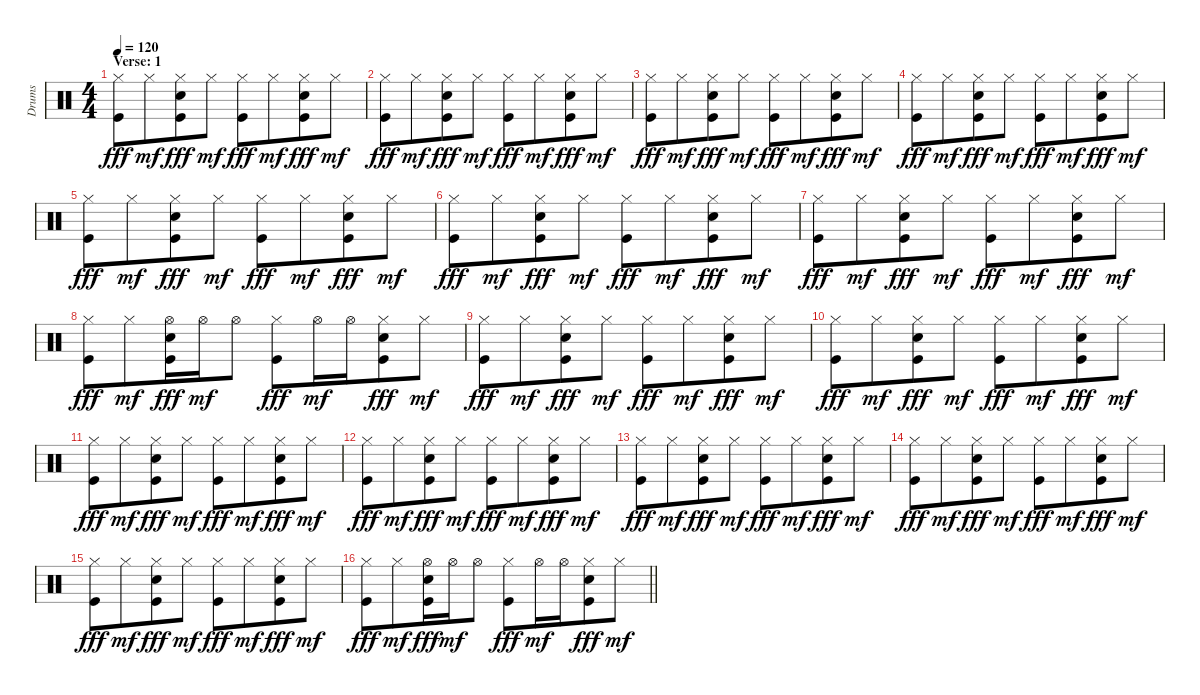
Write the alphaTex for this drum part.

\track ("Drums" "Drums") {instrument percussion}
\staff {score}
\articulation defaults
\ts (4 4)
\section ("" "Verse: 1")
\tempo 120
\clef neutral
\ks c
("Hi-Hat (closed)" "Kick (hit)").8{dy fff} "Hi-Hat (closed)".8{dy mf beam merge} ("Hi-Hat (closed)" "Snare (hit) 2" "Kick (hit)").8{dy fff} "Hi-Hat (closed)".8{dy mf} ("Hi-Hat (closed)" "Kick (hit)").8{dy fff} "Hi-Hat (closed)".8{dy mf beam merge} ("Hi-Hat (closed)" "Snare (hit) 2" "Kick (hit)").8{dy fff} "Hi-Hat (closed)".8{dy mf} |
("Hi-Hat (closed)" "Kick (hit)").8{dy fff} "Hi-Hat (closed)".8{dy mf beam merge} ("Hi-Hat (closed)" "Snare (hit) 2" "Kick (hit)").8{dy fff} "Hi-Hat (closed)".8{dy mf} ("Hi-Hat (closed)" "Kick (hit)").8{dy fff} "Hi-Hat (closed)".8{dy mf beam merge} ("Hi-Hat (closed)" "Snare (hit) 2" "Kick (hit)").8{dy fff} "Hi-Hat (closed)".8{dy mf} |
("Hi-Hat (closed)" "Kick (hit)").8{dy fff} "Hi-Hat (closed)".8{dy mf beam merge} ("Hi-Hat (closed)" "Snare (hit) 2" "Kick (hit)").8{dy fff} "Hi-Hat (closed)".8{dy mf} ("Hi-Hat (closed)" "Kick (hit)").8{dy fff} "Hi-Hat (closed)".8{dy mf beam merge} ("Hi-Hat (closed)" "Snare (hit) 2" "Kick (hit)").8{dy fff} "Hi-Hat (closed)".8{dy mf} |
("Hi-Hat (closed)" "Kick (hit)").8{dy fff} "Hi-Hat (closed)".8{dy mf beam merge} ("Hi-Hat (closed)" "Snare (hit) 2" "Kick (hit)").8{dy fff} "Hi-Hat (closed)".8{dy mf} ("Hi-Hat (closed)" "Kick (hit)").8{dy fff} "Hi-Hat (closed)".8{dy mf beam merge} ("Hi-Hat (closed)" "Snare (hit) 2" "Kick (hit)").8{dy fff} "Hi-Hat (closed)".8{dy mf} |
("Hi-Hat (closed)" "Kick (hit)").8{dy fff} "Hi-Hat (closed)".8{dy mf beam merge} ("Hi-Hat (closed)" "Snare (hit) 2" "Kick (hit)").8{dy fff} "Hi-Hat (closed)".8{dy mf} ("Hi-Hat (closed)" "Kick (hit)").8{dy fff} "Hi-Hat (closed)".8{dy mf beam merge} ("Hi-Hat (closed)" "Snare (hit) 2" "Kick (hit)").8{dy fff} "Hi-Hat (closed)".8{dy mf} |
("Hi-Hat (closed)" "Kick (hit)").8{dy fff} "Hi-Hat (closed)".8{dy mf beam merge} ("Hi-Hat (closed)" "Snare (hit) 2" "Kick (hit)").8{dy fff} "Hi-Hat (closed)".8{dy mf} ("Hi-Hat (closed)" "Kick (hit)").8{dy fff} "Hi-Hat (closed)".8{dy mf beam merge} ("Hi-Hat (closed)" "Snare (hit) 2" "Kick (hit)").8{dy fff} "Hi-Hat (closed)".8{dy mf} |
("Hi-Hat (closed)" "Kick (hit)").8{dy fff} "Hi-Hat (closed)".8{dy mf beam merge} ("Hi-Hat (closed)" "Snare (hit) 2" "Kick (hit)").8{dy fff} "Hi-Hat (closed)".8{dy mf} ("Hi-Hat (closed)" "Kick (hit)").8{dy fff} "Hi-Hat (closed)".8{dy mf beam merge} ("Hi-Hat (closed)" "Snare (hit) 2" "Kick (hit)").8{dy fff} "Hi-Hat (closed)".8{dy mf} |
("Hi-Hat (closed)" "Kick (hit)").8{dy fff} "Hi-Hat (closed)".8{dy mf beam merge} ("Hi-Hat (open)" "Snare (hit) 2" "Kick (hit)").16{dy fff} "Hi-Hat (open)".16{dy mf} "Hi-Hat (open)".8 ("Hi-Hat (closed)" "Kick (hit)").8{dy fff} "Hi-Hat (open)".16{dy mf} "Hi-Hat (open)".16{beam merge} ("Hi-Hat (closed)" "Snare (hit) 2" "Kick (hit)").8{dy fff} "Hi-Hat (closed)".8{dy mf} |
("Hi-Hat (closed)" "Kick (hit)").8{dy fff} "Hi-Hat (closed)".8{dy mf beam merge} ("Hi-Hat (closed)" "Snare (hit) 2" "Kick (hit)").8{dy fff} "Hi-Hat (closed)".8{dy mf} ("Hi-Hat (closed)" "Kick (hit)").8{dy fff} "Hi-Hat (closed)".8{dy mf beam merge} ("Hi-Hat (closed)" "Snare (hit) 2" "Kick (hit)").8{dy fff} "Hi-Hat (closed)".8{dy mf} |
("Hi-Hat (closed)" "Kick (hit)").8{dy fff} "Hi-Hat (closed)".8{dy mf beam merge} ("Hi-Hat (closed)" "Snare (hit) 2" "Kick (hit)").8{dy fff} "Hi-Hat (closed)".8{dy mf} ("Hi-Hat (closed)" "Kick (hit)").8{dy fff} "Hi-Hat (closed)".8{dy mf beam merge} ("Hi-Hat (closed)" "Snare (hit) 2" "Kick (hit)").8{dy fff} "Hi-Hat (closed)".8{dy mf} |
("Hi-Hat (closed)" "Kick (hit)").8{dy fff} "Hi-Hat (closed)".8{dy mf beam merge} ("Hi-Hat (closed)" "Snare (hit) 2" "Kick (hit)").8{dy fff} "Hi-Hat (closed)".8{dy mf} ("Hi-Hat (closed)" "Kick (hit)").8{dy fff} "Hi-Hat (closed)".8{dy mf beam merge} ("Hi-Hat (closed)" "Snare (hit) 2" "Kick (hit)").8{dy fff} "Hi-Hat (closed)".8{dy mf} |
("Hi-Hat (closed)" "Kick (hit)").8{dy fff} "Hi-Hat (closed)".8{dy mf beam merge} ("Hi-Hat (closed)" "Snare (hit) 2" "Kick (hit)").8{dy fff} "Hi-Hat (closed)".8{dy mf} ("Hi-Hat (closed)" "Kick (hit)").8{dy fff} "Hi-Hat (closed)".8{dy mf beam merge} ("Hi-Hat (closed)" "Snare (hit) 2" "Kick (hit)").8{dy fff} "Hi-Hat (closed)".8{dy mf} |
("Hi-Hat (closed)" "Kick (hit)").8{dy fff} "Hi-Hat (closed)".8{dy mf beam merge} ("Hi-Hat (closed)" "Snare (hit) 2" "Kick (hit)").8{dy fff} "Hi-Hat (closed)".8{dy mf} ("Hi-Hat (closed)" "Kick (hit)").8{dy fff} "Hi-Hat (closed)".8{dy mf beam merge} ("Hi-Hat (closed)" "Snare (hit) 2" "Kick (hit)").8{dy fff} "Hi-Hat (closed)".8{dy mf} |
("Hi-Hat (closed)" "Kick (hit)").8{dy fff} "Hi-Hat (closed)".8{dy mf beam merge} ("Hi-Hat (closed)" "Snare (hit) 2" "Kick (hit)").8{dy fff} "Hi-Hat (closed)".8{dy mf} ("Hi-Hat (closed)" "Kick (hit)").8{dy fff} "Hi-Hat (closed)".8{dy mf beam merge} ("Hi-Hat (closed)" "Snare (hit) 2" "Kick (hit)").8{dy fff} "Hi-Hat (closed)".8{dy mf} |
("Hi-Hat (closed)" "Kick (hit)").8{dy fff} "Hi-Hat (closed)".8{dy mf beam merge} ("Hi-Hat (closed)" "Snare (hit) 2" "Kick (hit)").8{dy fff} "Hi-Hat (closed)".8{dy mf} ("Hi-Hat (closed)" "Kick (hit)").8{dy fff} "Hi-Hat (closed)".8{dy mf beam merge} ("Hi-Hat (closed)" "Snare (hit) 2" "Kick (hit)").8{dy fff} "Hi-Hat (closed)".8{dy mf} |
\barLineRight lightlight
("Hi-Hat (closed)" "Kick (hit)").8{dy fff} "Hi-Hat (closed)".8{dy mf beam merge} ("Hi-Hat (open)" "Snare (hit) 2" "Kick (hit)").16{dy fff} "Hi-Hat (open)".16{dy mf} "Hi-Hat (open)".8 ("Hi-Hat (closed)" "Kick (hit)").8{dy fff} "Hi-Hat (open)".16{dy mf} "Hi-Hat (open)".16{beam merge} ("Hi-Hat (closed)" "Snare (hit) 2" "Kick (hit)").8{dy fff} "Hi-Hat (closed)".8{dy mf}
